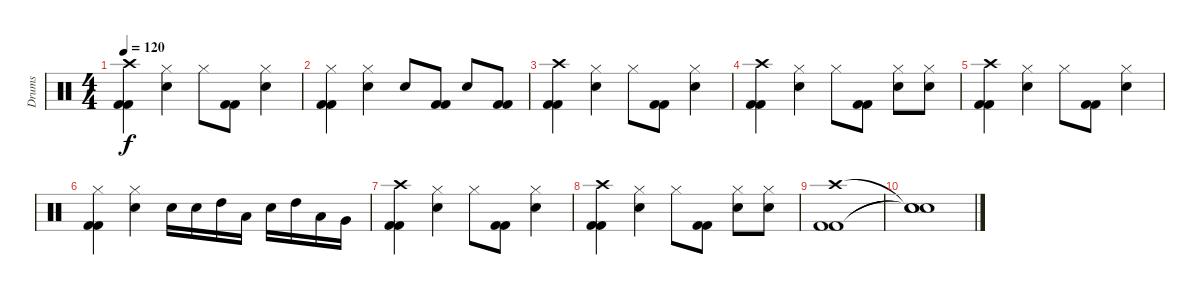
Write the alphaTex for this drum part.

\track ("Drums" "Drums") {instrument percussion}
\staff {score}
\articulation defaults
\ts (4 4)
\tempo 120
\clef neutral
\ks c
("Crash high (hit)" "Kick (hit) 2" "Kick (hit) 2").4{dy f} ("Electric Snare (hit)" "Hi-Hat (closed)").4 "Hi-Hat (closed)".8 ("Kick (hit) 2" "Kick (hit) 2").8 ("Electric Snare (hit)" "Hi-Hat (closed)").4 |
("Hi-Hat (closed)" "Kick (hit) 2" "Kick (hit) 2").4 ("Electric Snare (hit)" "Hi-Hat (closed)").4 "Electric Snare (hit)".8 ("Kick (hit) 2" "Kick (hit) 2").8 "Electric Snare (hit)".8 ("Kick (hit) 2" "Kick (hit) 2").8 |
("Crash high (hit)" "Kick (hit) 2" "Kick (hit) 2").4 ("Electric Snare (hit)" "Hi-Hat (closed)").4 "Hi-Hat (closed)".8 ("Kick (hit) 2" "Kick (hit) 2").8 ("Electric Snare (hit)" "Hi-Hat (closed)").4 |
("Crash high (hit)" "Kick (hit) 2" "Kick (hit) 2").4 ("Electric Snare (hit)" "Hi-Hat (closed)").4 "Hi-Hat (closed)".8 ("Kick (hit) 2" "Kick (hit) 2").8 ("Electric Snare (hit)" "Hi-Hat (closed)").8 ("Electric Snare (hit)" "Hi-Hat (closed)").8 |
("Crash high (hit)" "Kick (hit) 2" "Kick (hit) 2").4 ("Electric Snare (hit)" "Hi-Hat (closed)").4 "Hi-Hat (closed)".8 ("Kick (hit) 2" "Kick (hit) 2").8 ("Electric Snare (hit)" "Hi-Hat (closed)").4 |
("Hi-Hat (closed)" "Kick (hit) 2" "Kick (hit) 2").4 ("Electric Snare (hit)" "Hi-Hat (closed)").4 "Electric Snare (hit)".16 "Electric Snare (hit)".16 "High Tom (hit)".16 "Low Tom (hit)".16 "Electric Snare (hit)".16 "High Tom (hit)".16 "Low Tom (hit)".16 "Very Low Tom (hit)".16 |
("Crash high (hit)" "Kick (hit) 2" "Kick (hit) 2").4 ("Electric Snare (hit)" "Hi-Hat (closed)").4 "Hi-Hat (closed)".8 ("Kick (hit) 2" "Kick (hit) 2").8 ("Electric Snare (hit)" "Hi-Hat (closed)").4 |
("Crash high (hit)" "Kick (hit) 2" "Kick (hit) 2").4 ("Electric Snare (hit)" "Hi-Hat (closed)").4 "Hi-Hat (closed)".8 ("Kick (hit) 2" "Kick (hit) 2").8 ("Electric Snare (hit)" "Hi-Hat (closed)").8 ("Electric Snare (hit)" "Hi-Hat (closed)").8 |
("Crash high (hit)" "Kick (hit) 2" "Kick (hit) 2").1 |
("Snare (hit)"{t} "Snare (hit)"{t} "Snare (hit)"{t}).1
